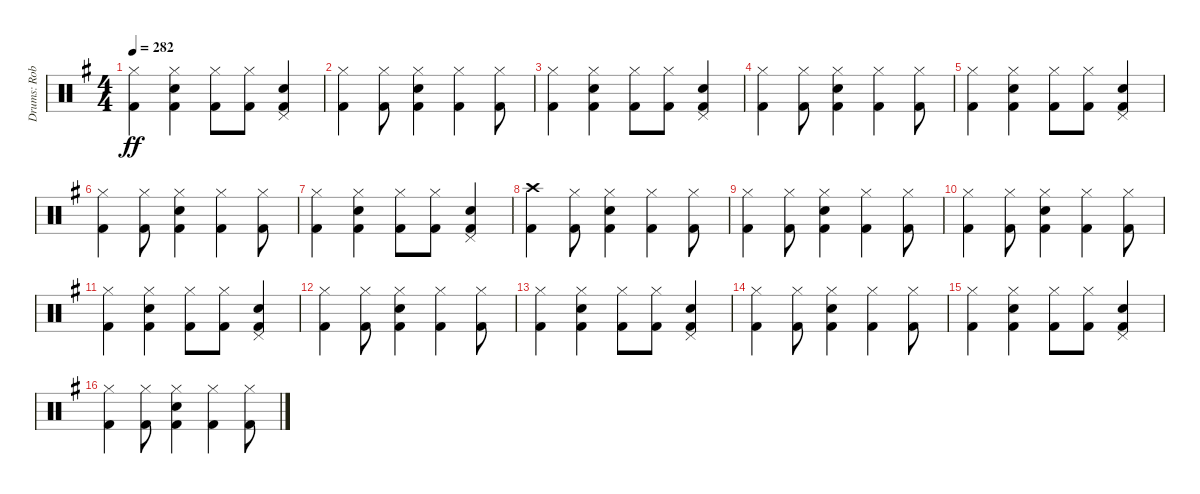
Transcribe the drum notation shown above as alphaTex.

\track ("Drums: Rob" "Drums: Rob") {instrument percussion}
\staff {score}
\articulation defaults
\ts (4 4)
\tempo 282
\clef neutral
\ks g
("Hi-Hat (closed)" "Kick (hit) 2").4{dy ff} ("Hi-Hat (closed)" "Snare (hit) 2" "Kick (hit) 2").4 ("Hi-Hat (closed)" "Kick (hit) 2").8 ("Hi-Hat (closed)" "Kick (hit) 2").8 ("Pedal Hi-Hat (hit)" "Snare (hit) 2" "Kick (hit) 2").4 |
("Hi-Hat (closed)" "Kick (hit) 2").4 ("Hi-Hat (closed)" "Kick (hit) 2").8 ("Hi-Hat (closed)" "Snare (hit) 2" "Kick (hit) 2").4 ("Hi-Hat (closed)" "Kick (hit) 2").4 ("Hi-Hat (closed)" "Kick (hit) 2").8 |
("Hi-Hat (closed)" "Kick (hit) 2").4 ("Hi-Hat (closed)" "Snare (hit) 2" "Kick (hit) 2").4 ("Hi-Hat (closed)" "Kick (hit) 2").8 ("Hi-Hat (closed)" "Kick (hit) 2").8 ("Pedal Hi-Hat (hit)" "Snare (hit) 2" "Kick (hit) 2").4 |
("Hi-Hat (closed)" "Kick (hit) 2").4 ("Hi-Hat (closed)" "Kick (hit) 2").8 ("Hi-Hat (closed)" "Snare (hit) 2" "Kick (hit) 2").4 ("Hi-Hat (closed)" "Kick (hit) 2").4 ("Hi-Hat (closed)" "Kick (hit) 2").8 |
("Hi-Hat (closed)" "Kick (hit) 2").4 ("Hi-Hat (closed)" "Snare (hit) 2" "Kick (hit) 2").4 ("Hi-Hat (closed)" "Kick (hit) 2").8 ("Hi-Hat (closed)" "Kick (hit) 2").8 ("Pedal Hi-Hat (hit)" "Snare (hit) 2" "Kick (hit) 2").4 |
("Hi-Hat (closed)" "Kick (hit) 2").4 ("Hi-Hat (closed)" "Kick (hit) 2").8 ("Hi-Hat (closed)" "Snare (hit) 2" "Kick (hit) 2").4 ("Hi-Hat (closed)" "Kick (hit) 2").4 ("Hi-Hat (closed)" "Kick (hit) 2").8 |
("Hi-Hat (closed)" "Kick (hit) 2").4 ("Hi-Hat (closed)" "Snare (hit) 2" "Kick (hit) 2").4 ("Hi-Hat (closed)" "Kick (hit) 2").8 ("Hi-Hat (closed)" "Kick (hit) 2").8 ("Pedal Hi-Hat (hit)" "Snare (hit) 2" "Kick (hit) 2").4 |
("Crash high (hit)" "Kick (hit) 2").4 ("Hi-Hat (closed)" "Kick (hit) 2").8 ("Hi-Hat (closed)" "Snare (hit) 2" "Kick (hit) 2").4 ("Hi-Hat (closed)" "Kick (hit) 2").4 ("Hi-Hat (closed)" "Kick (hit) 2").8 |
("Hi-Hat (closed)" "Kick (hit) 2").4 ("Hi-Hat (closed)" "Kick (hit) 2").8 ("Hi-Hat (closed)" "Snare (hit) 2" "Kick (hit) 2").4 ("Hi-Hat (closed)" "Kick (hit) 2").4 ("Hi-Hat (closed)" "Kick (hit) 2").8 |
("Hi-Hat (closed)" "Kick (hit) 2").4 ("Hi-Hat (closed)" "Kick (hit) 2").8 ("Hi-Hat (closed)" "Snare (hit) 2" "Kick (hit) 2").4 ("Hi-Hat (closed)" "Kick (hit) 2").4 ("Hi-Hat (closed)" "Kick (hit) 2").8 |
("Hi-Hat (closed)" "Kick (hit) 2").4 ("Hi-Hat (closed)" "Snare (hit) 2" "Kick (hit) 2").4 ("Hi-Hat (closed)" "Kick (hit) 2").8 ("Hi-Hat (closed)" "Kick (hit) 2").8 ("Pedal Hi-Hat (hit)" "Snare (hit) 2" "Kick (hit) 2").4 |
("Hi-Hat (closed)" "Kick (hit) 2").4 ("Hi-Hat (closed)" "Kick (hit) 2").8 ("Hi-Hat (closed)" "Snare (hit) 2" "Kick (hit) 2").4 ("Hi-Hat (closed)" "Kick (hit) 2").4 ("Hi-Hat (closed)" "Kick (hit) 2").8 |
("Hi-Hat (closed)" "Kick (hit) 2").4 ("Hi-Hat (closed)" "Snare (hit) 2" "Kick (hit) 2").4 ("Hi-Hat (closed)" "Kick (hit) 2").8 ("Hi-Hat (closed)" "Kick (hit) 2").8 ("Pedal Hi-Hat (hit)" "Snare (hit) 2" "Kick (hit) 2").4 |
("Hi-Hat (closed)" "Kick (hit) 2").4 ("Hi-Hat (closed)" "Kick (hit) 2").8 ("Hi-Hat (closed)" "Snare (hit) 2" "Kick (hit) 2").4 ("Hi-Hat (closed)" "Kick (hit) 2").4 ("Hi-Hat (closed)" "Kick (hit) 2").8 |
("Hi-Hat (closed)" "Kick (hit) 2").4 ("Hi-Hat (closed)" "Snare (hit) 2" "Kick (hit) 2").4 ("Hi-Hat (closed)" "Kick (hit) 2").8 ("Hi-Hat (closed)" "Kick (hit) 2").8 ("Pedal Hi-Hat (hit)" "Snare (hit) 2" "Kick (hit) 2").4 |
("Hi-Hat (closed)" "Kick (hit) 2").4 ("Hi-Hat (closed)" "Kick (hit) 2").8 ("Hi-Hat (closed)" "Snare (hit) 2" "Kick (hit) 2").4 ("Hi-Hat (closed)" "Kick (hit) 2").4 ("Hi-Hat (closed)" "Kick (hit) 2").8
